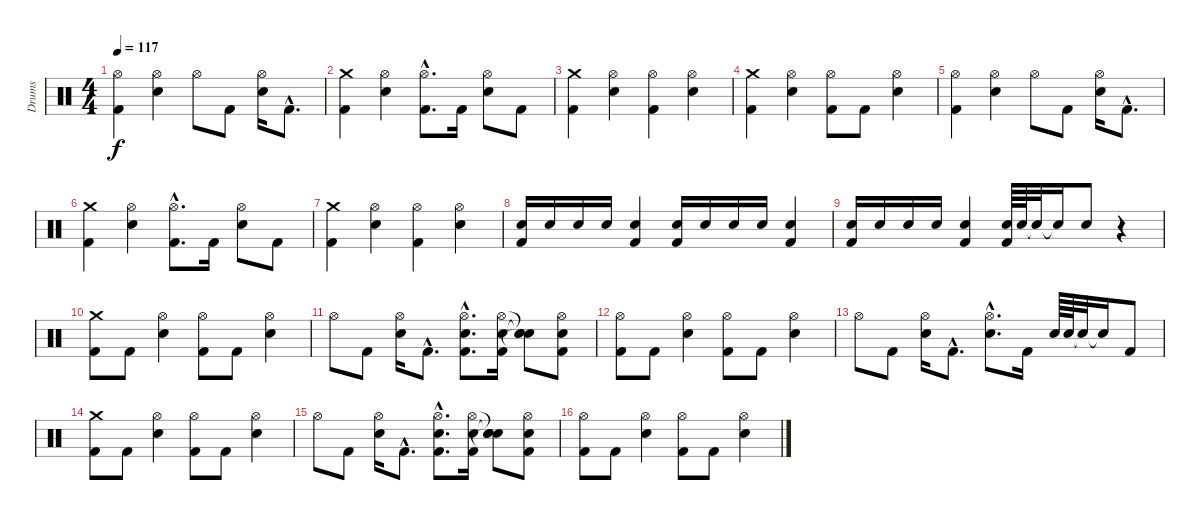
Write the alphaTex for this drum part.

\track ("Drums" "Drums") {instrument percussion}
\staff {score}
\articulation defaults
\ts (4 4)
\tempo 117
\clef neutral
\ks c
("Hi-Hat (open)" "Kick (hit) 2").4{dy f} ("Hi-Hat (open)" "Snare (hit) 2").4 "Hi-Hat (open)".8 "Kick (hit) 2".8 ("Hi-Hat (open)" "Snare (hit) 2").16 "Kick (hit) 2"{hac}.8{d} |
("Crash medium (hit)" "Kick (hit) 2").4 ("Hi-Hat (open)" "Snare (hit) 2").4 ("Hi-Hat (open)"{hac} "Kick (hit) 2"{hac}).8{d} "Kick (hit) 2".16 ("Hi-Hat (open)" "Snare (hit) 2").8 "Kick (hit) 2".8 |
("Crash medium (hit)" "Kick (hit) 2").4 ("Hi-Hat (open)" "Snare (hit) 2").4 ("Hi-Hat (open)" "Kick (hit) 2").4 ("Hi-Hat (open)" "Snare (hit) 2").4 |
("Crash medium (hit)" "Kick (hit) 2").4 ("Hi-Hat (open)" "Snare (hit) 2").4 ("Hi-Hat (open)" "Kick (hit) 2").8 "Kick (hit) 2".8 ("Hi-Hat (open)" "Snare (hit) 2").4 |
("Hi-Hat (open)" "Kick (hit) 2").4 ("Hi-Hat (open)" "Snare (hit) 2").4 "Hi-Hat (open)".8 "Kick (hit) 2".8 ("Hi-Hat (open)" "Snare (hit) 2").16 "Kick (hit) 2"{hac}.8{d} |
("Crash medium (hit)" "Kick (hit) 2").4 ("Hi-Hat (open)" "Snare (hit) 2").4 ("Hi-Hat (open)"{hac} "Kick (hit) 2"{hac}).8{d} "Kick (hit) 2".16 ("Hi-Hat (open)" "Snare (hit) 2").8 "Kick (hit) 2".8 |
("Crash medium (hit)" "Kick (hit) 2").4 ("Hi-Hat (open)" "Snare (hit) 2").4 ("Hi-Hat (open)" "Kick (hit) 2").4 ("Hi-Hat (open)" "Snare (hit) 2").4 |
("Snare (hit) 2" "Kick (hit) 2").16 "Snare (hit) 2".16 "Snare (hit) 2".16 "Snare (hit) 2".16 ("Snare (hit) 2" "Kick (hit) 2").4 ("Snare (hit) 2" "Kick (hit) 2").16 "Snare (hit) 2".16 "Snare (hit) 2".16 "Snare (hit) 2".16 ("Snare (hit) 2" "Kick (hit) 2").4 |
("Snare (hit) 2" "Kick (hit) 2").16 "Snare (hit) 2".16 "Snare (hit) 2".16 "Snare (hit) 2".16 ("Snare (hit) 2" "Kick (hit) 2").4 ("Snare (hit) 2" "Kick (hit) 2").64 "Snare (hit) 2".64 "Snare (hit)"{t}.32 "Snare (hit)"{t}.16 "Snare (hit) 2".8 r.4 |
("Crash medium (hit)" "Kick (hit) 2").8 "Kick (hit) 2".8 ("Hi-Hat (open)" "Snare (hit) 2").4 ("Hi-Hat (open)" "Kick (hit) 2").8 "Kick (hit) 2".8 ("Hi-Hat (open)" "Snare (hit) 2").4 |
"Hi-Hat (open)".8 "Kick (hit) 2".8 ("Hi-Hat (open)" "Snare (hit) 2").16 "Kick (hit) 2"{hac}.8{d} ("Hi-Hat (open)"{hac} "Snare (hit) 2"{hac} "Kick (hit) 2"{hac}).8{d} ("Hi-Hat (open)" "Snare (hit) 2" "Kick (hit) 2").16 ("Snare (hit)"{t} "Snare (hit)"{t} "Snare (hit)"{t}).8 ("Hi-Hat (open)" "Snare (hit) 2" "Kick (hit) 2").8 |
("Hi-Hat (open)" "Kick (hit) 2").8 "Kick (hit) 2".8 ("Hi-Hat (open)" "Snare (hit) 2").4 ("Hi-Hat (open)" "Kick (hit) 2").8 "Kick (hit) 2".8 ("Hi-Hat (open)" "Snare (hit) 2").4 |
"Hi-Hat (open)".8 "Kick (hit) 2".8 ("Hi-Hat (open)" "Snare (hit) 2").16 "Kick (hit) 2"{hac}.8{d} ("Hi-Hat (open)"{hac} "Snare (hit) 2"{hac}).8{d} "Kick (hit) 2".16 "Snare (hit) 2".64 "Snare (hit) 2".64 "Snare (hit)"{t}.32 "Snare (hit)"{t}.16 "Kick (hit) 2".8 |
("Crash medium (hit)" "Kick (hit) 2").8 "Kick (hit) 2".8 ("Hi-Hat (open)" "Snare (hit) 2").4 ("Hi-Hat (open)" "Kick (hit) 2").8 "Kick (hit) 2".8 ("Hi-Hat (open)" "Snare (hit) 2").4 |
"Hi-Hat (open)".8 "Kick (hit) 2".8 ("Hi-Hat (open)" "Snare (hit) 2").16 "Kick (hit) 2"{hac}.8{d} ("Hi-Hat (open)"{hac} "Snare (hit) 2"{hac} "Kick (hit) 2"{hac}).8{d} ("Hi-Hat (open)" "Snare (hit) 2" "Kick (hit) 2").16 ("Snare (hit)"{t} "Snare (hit)"{t} "Snare (hit)"{t}).8 ("Hi-Hat (open)" "Snare (hit) 2" "Kick (hit) 2").8 |
("Hi-Hat (open)" "Kick (hit) 2").8 "Kick (hit) 2".8 ("Hi-Hat (open)" "Snare (hit) 2").4 ("Hi-Hat (open)" "Kick (hit) 2").8 "Kick (hit) 2".8 ("Hi-Hat (open)" "Snare (hit) 2").4
